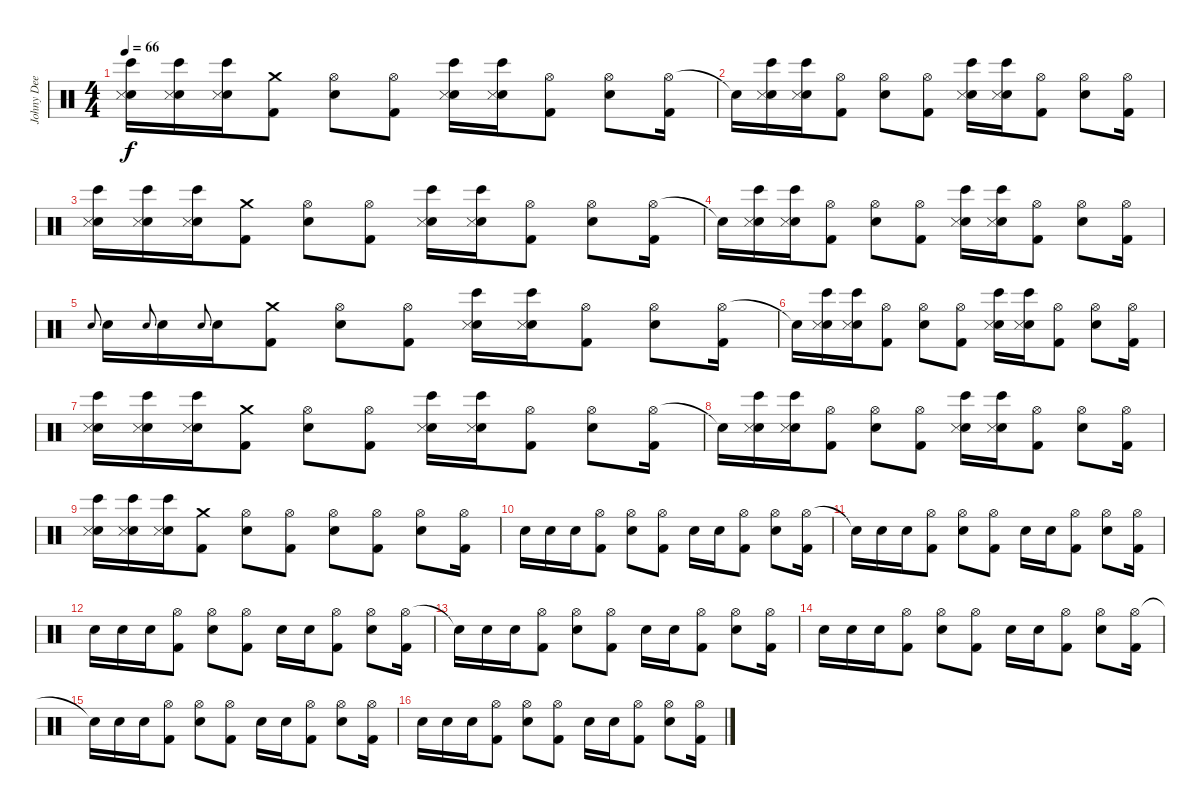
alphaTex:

\track ("Johny Dee" "Johny Dee") {instrument percussion}
\staff {score}
\articulation defaults
\ts (4 4)
\tempo 66
\clef neutral
\ks c
("Snare (hit) 2" "Metronome (hit)" "Bongo High (hit)").16{dy f} ("Snare (hit) 2" "Metronome (hit)" "Bongo High (hit)").16 ("Snare (hit) 2" "Metronome (hit)" "Bongo High (hit)").16 ("Crash medium (hit)" "Kick (hit) 2").8 ("Hi-Hat (open)" "Snare (hit) 2").8 ("Hi-Hat (open)" "Kick (hit) 2").8 ("Snare (hit) 2" "Metronome (hit)" "Bongo High (hit)").16 ("Snare (hit) 2" "Metronome (hit)" "Bongo High (hit)").16 ("Hi-Hat (open)" "Kick (hit) 2").8 ("Hi-Hat (open)" "Snare (hit) 2").8 ("Hi-Hat (open)" "Kick (hit) 2").16 |
"Snare (hit)"{t}.16 ("Snare (hit) 2" "Metronome (hit)" "Bongo High (hit)").16 ("Snare (hit) 2" "Metronome (hit)" "Bongo High (hit)").16 ("Hi-Hat (open)" "Kick (hit) 2").8 ("Hi-Hat (open)" "Snare (hit) 2").8 ("Hi-Hat (open)" "Kick (hit) 2").8 ("Snare (hit) 2" "Metronome (hit)" "Bongo High (hit)").16 ("Snare (hit) 2" "Metronome (hit)" "Bongo High (hit)").16 ("Hi-Hat (open)" "Kick (hit) 2").8 ("Hi-Hat (open)" "Snare (hit) 2").8 ("Hi-Hat (open)" "Kick (hit) 2").16 |
("Snare (hit) 2" "Metronome (hit)" "Bongo High (hit)").16 ("Snare (hit) 2" "Metronome (hit)" "Bongo High (hit)").16 ("Snare (hit) 2" "Metronome (hit)" "Bongo High (hit)").16 ("Crash medium (hit)" "Kick (hit) 2").8 ("Hi-Hat (open)" "Snare (hit) 2").8 ("Hi-Hat (open)" "Kick (hit) 2").8 ("Snare (hit) 2" "Metronome (hit)" "Bongo High (hit)").16 ("Snare (hit) 2" "Metronome (hit)" "Bongo High (hit)").16 ("Hi-Hat (open)" "Kick (hit) 2").8 ("Hi-Hat (open)" "Snare (hit) 2").8 ("Hi-Hat (open)" "Kick (hit) 2").16 |
"Snare (hit)"{t}.16 ("Snare (hit) 2" "Metronome (hit)" "Bongo High (hit)").16 ("Snare (hit) 2" "Metronome (hit)" "Bongo High (hit)").16 ("Hi-Hat (open)" "Kick (hit) 2").8 ("Hi-Hat (open)" "Snare (hit) 2").8 ("Hi-Hat (open)" "Kick (hit) 2").8 ("Snare (hit) 2" "Metronome (hit)" "Bongo High (hit)").16 ("Snare (hit) 2" "Metronome (hit)" "Bongo High (hit)").16 ("Hi-Hat (open)" "Kick (hit) 2").8 ("Hi-Hat (open)" "Snare (hit) 2").8 ("Hi-Hat (open)" "Kick (hit) 2").16 |
"Snare (hit) 2".8{gr onbeat} "Snare (hit) 2".16 "Snare (hit) 2".8{gr onbeat} "Snare (hit) 2".16 "Snare (hit) 2".8{gr onbeat} "Snare (hit) 2".16 ("Crash medium (hit)" "Kick (hit) 2").8 ("Hi-Hat (open)" "Snare (hit) 2").8 ("Hi-Hat (open)" "Kick (hit) 2").8 ("Snare (hit) 2" "Metronome (hit)" "Bongo High (hit)").16 ("Snare (hit) 2" "Metronome (hit)" "Bongo High (hit)").16 ("Hi-Hat (open)" "Kick (hit) 2").8 ("Hi-Hat (open)" "Snare (hit) 2").8 ("Hi-Hat (open)" "Kick (hit) 2").16 |
"Snare (hit)"{t}.16 ("Snare (hit) 2" "Metronome (hit)" "Bongo High (hit)").16 ("Snare (hit) 2" "Metronome (hit)" "Bongo High (hit)").16 ("Hi-Hat (open)" "Kick (hit) 2").8 ("Hi-Hat (open)" "Snare (hit) 2").8 ("Hi-Hat (open)" "Kick (hit) 2").8 ("Snare (hit) 2" "Metronome (hit)" "Bongo High (hit)").16 ("Snare (hit) 2" "Metronome (hit)" "Bongo High (hit)").16 ("Hi-Hat (open)" "Kick (hit) 2").8 ("Hi-Hat (open)" "Snare (hit) 2").8 ("Hi-Hat (open)" "Kick (hit) 2").16 |
("Snare (hit) 2" "Metronome (hit)" "Bongo High (hit)").16 ("Snare (hit) 2" "Metronome (hit)" "Bongo High (hit)").16 ("Snare (hit) 2" "Metronome (hit)" "Bongo High (hit)").16 ("Crash medium (hit)" "Kick (hit) 2").8 ("Hi-Hat (open)" "Snare (hit) 2").8 ("Hi-Hat (open)" "Kick (hit) 2").8 ("Snare (hit) 2" "Metronome (hit)" "Bongo High (hit)").16 ("Snare (hit) 2" "Metronome (hit)" "Bongo High (hit)").16 ("Hi-Hat (open)" "Kick (hit) 2").8 ("Hi-Hat (open)" "Snare (hit) 2").8 ("Hi-Hat (open)" "Kick (hit) 2").16 |
"Snare (hit)"{t}.16 ("Snare (hit) 2" "Metronome (hit)" "Bongo High (hit)").16 ("Snare (hit) 2" "Metronome (hit)" "Bongo High (hit)").16 ("Hi-Hat (open)" "Kick (hit) 2").8 ("Hi-Hat (open)" "Snare (hit) 2").8 ("Hi-Hat (open)" "Kick (hit) 2").8 ("Snare (hit) 2" "Metronome (hit)" "Bongo High (hit)").16 ("Snare (hit) 2" "Metronome (hit)" "Bongo High (hit)").16 ("Hi-Hat (open)" "Kick (hit) 2").8 ("Hi-Hat (open)" "Snare (hit) 2").8 ("Hi-Hat (open)" "Kick (hit) 2").16 |
("Snare (hit) 2" "Metronome (hit)" "Bongo High (hit)").16 ("Snare (hit) 2" "Metronome (hit)" "Bongo High (hit)").16 ("Snare (hit) 2" "Metronome (hit)" "Bongo High (hit)").16 ("Crash medium (hit)" "Kick (hit) 2").8 ("Hi-Hat (open)" "Snare (hit) 2").8 ("Hi-Hat (open)" "Kick (hit) 2").8 ("Hi-Hat (open)" "Snare (hit) 2").8 ("Hi-Hat (open)" "Kick (hit) 2").8 ("Hi-Hat (open)" "Snare (hit) 2").8 ("Hi-Hat (open)" "Kick (hit) 2").16 |
"Snare (hit) 2".16 "Snare (hit) 2".16 "Snare (hit) 2".16 ("Hi-Hat (open)" "Kick (hit) 2").8 ("Hi-Hat (open)" "Snare (hit) 2").8 ("Hi-Hat (open)" "Kick (hit) 2").8 "Snare (hit) 2".16 "Snare (hit) 2".16 ("Hi-Hat (open)" "Kick (hit) 2").8 ("Hi-Hat (open)" "Snare (hit) 2").8 ("Hi-Hat (open)" "Kick (hit) 2").16 |
"Snare (hit)"{t}.16 "Snare (hit) 2".16 "Snare (hit) 2".16 ("Hi-Hat (open)" "Kick (hit) 2").8 ("Hi-Hat (open)" "Snare (hit) 2").8 ("Hi-Hat (open)" "Kick (hit) 2").8 "Snare (hit) 2".16 "Snare (hit) 2".16 ("Hi-Hat (open)" "Kick (hit) 2").8 ("Hi-Hat (open)" "Snare (hit) 2").8 ("Hi-Hat (open)" "Kick (hit) 2").16 |
"Snare (hit) 2".16 "Snare (hit) 2".16 "Snare (hit) 2".16 ("Hi-Hat (open)" "Kick (hit) 2").8 ("Hi-Hat (open)" "Snare (hit) 2").8 ("Hi-Hat (open)" "Kick (hit) 2").8 "Snare (hit) 2".16 "Snare (hit) 2".16 ("Hi-Hat (open)" "Kick (hit) 2").8 ("Hi-Hat (open)" "Snare (hit) 2").8 ("Hi-Hat (open)" "Kick (hit) 2").16 |
"Snare (hit)"{t}.16 "Snare (hit) 2".16 "Snare (hit) 2".16 ("Hi-Hat (open)" "Kick (hit) 2").8 ("Hi-Hat (open)" "Snare (hit) 2").8 ("Hi-Hat (open)" "Kick (hit) 2").8 "Snare (hit) 2".16 "Snare (hit) 2".16 ("Hi-Hat (open)" "Kick (hit) 2").8 ("Hi-Hat (open)" "Snare (hit) 2").8 ("Hi-Hat (open)" "Kick (hit) 2").16 |
"Snare (hit) 2".16 "Snare (hit) 2".16 "Snare (hit) 2".16 ("Hi-Hat (open)" "Kick (hit) 2").8 ("Hi-Hat (open)" "Snare (hit) 2").8 ("Hi-Hat (open)" "Kick (hit) 2").8 "Snare (hit) 2".16 "Snare (hit) 2".16 ("Hi-Hat (open)" "Kick (hit) 2").8 ("Hi-Hat (open)" "Snare (hit) 2").8 ("Hi-Hat (open)" "Kick (hit) 2").16 |
"Snare (hit)"{t}.16 "Snare (hit) 2".16 "Snare (hit) 2".16 ("Hi-Hat (open)" "Kick (hit) 2").8 ("Hi-Hat (open)" "Snare (hit) 2").8 ("Hi-Hat (open)" "Kick (hit) 2").8 "Snare (hit) 2".16 "Snare (hit) 2".16 ("Hi-Hat (open)" "Kick (hit) 2").8 ("Hi-Hat (open)" "Snare (hit) 2").8 ("Hi-Hat (open)" "Kick (hit) 2").16 |
"Snare (hit) 2".16 "Snare (hit) 2".16 "Snare (hit) 2".16 ("Hi-Hat (open)" "Kick (hit) 2").8 ("Hi-Hat (open)" "Snare (hit) 2").8 ("Hi-Hat (open)" "Kick (hit) 2").8 "Snare (hit) 2".16 "Snare (hit) 2".16 ("Hi-Hat (open)" "Kick (hit) 2").8 ("Hi-Hat (open)" "Snare (hit) 2").8 ("Hi-Hat (open)" "Kick (hit) 2").16
